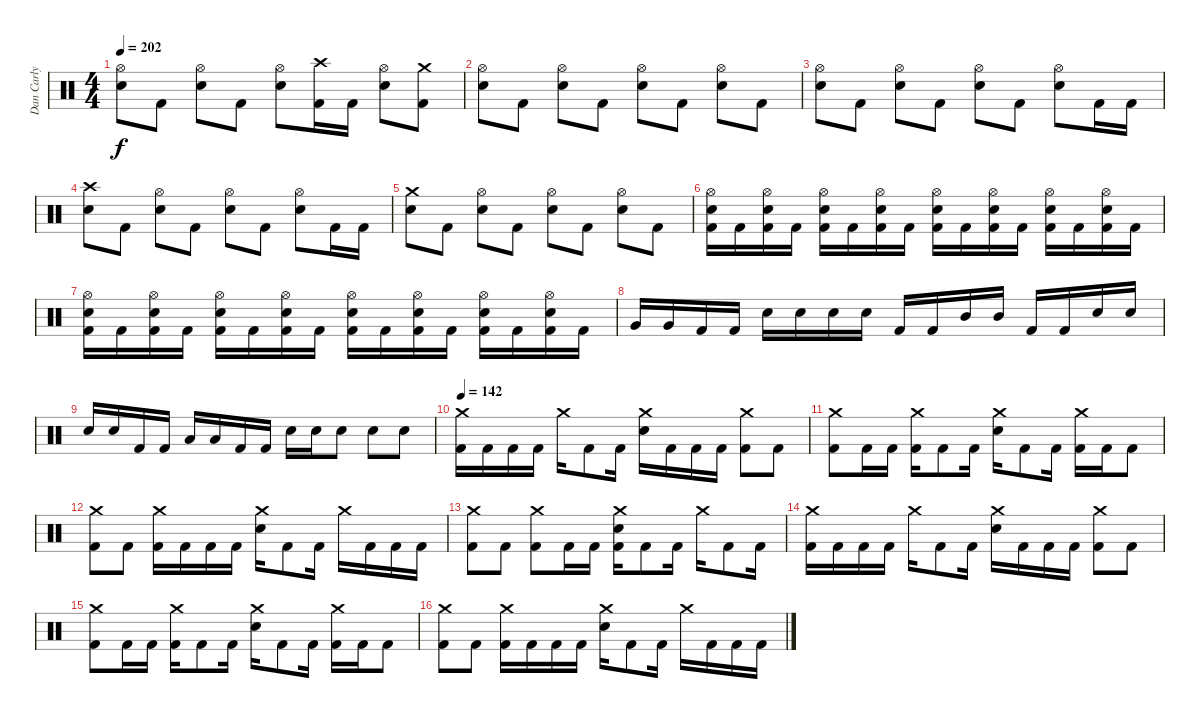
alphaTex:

\track ("Dan Carly" "Dan Carly") {instrument percussion}
\staff {score}
\articulation defaults
\ts (4 4)
\tempo 202
\clef neutral
\ks c
("Hi-Hat (open)" "Electric Snare (hit)").8{dy f} "Kick (hit) 2".8 ("Hi-Hat (open)" "Electric Snare (hit)").8 "Kick (hit) 2".8 ("Hi-Hat (open)" "Electric Snare (hit)").8 ("Crash high (hit)" "Kick (hit) 2").16 "Kick (hit) 2".16 ("Hi-Hat (open)" "Electric Snare (hit)").8 ("Crash medium (hit)" "Kick (hit) 2").8 |
("Hi-Hat (open)" "Electric Snare (hit)").8 "Kick (hit) 2".8 ("Hi-Hat (open)" "Electric Snare (hit)").8 "Kick (hit) 2".8 ("Hi-Hat (open)" "Electric Snare (hit)").8 "Kick (hit) 2".8 ("Hi-Hat (open)" "Electric Snare (hit)").8 "Kick (hit) 2".8 |
("Hi-Hat (open)" "Electric Snare (hit)").8 "Kick (hit) 2".8 ("Hi-Hat (open)" "Electric Snare (hit)").8 "Kick (hit) 2".8 ("Hi-Hat (open)" "Electric Snare (hit)").8 "Kick (hit) 2".8 ("Hi-Hat (open)" "Electric Snare (hit)").8 "Kick (hit) 2".16 "Kick (hit) 2".16 |
("Crash high (hit)" "Electric Snare (hit)").8 "Kick (hit) 2".8 ("Hi-Hat (open)" "Electric Snare (hit)").8 "Kick (hit) 2".8 ("Hi-Hat (open)" "Electric Snare (hit)").8 "Kick (hit) 2".8 ("Hi-Hat (open)" "Electric Snare (hit)").8 "Kick (hit) 2".16 "Kick (hit) 2".16 |
("Crash medium (hit)" "Electric Snare (hit)").8 "Kick (hit) 2".8 ("Hi-Hat (open)" "Electric Snare (hit)").8 "Kick (hit) 2".8 ("Hi-Hat (open)" "Electric Snare (hit)").8 "Kick (hit) 2".8 ("Hi-Hat (open)" "Electric Snare (hit)").8 "Kick (hit) 2".8 |
("Hi-Hat (open)" "Electric Snare (hit)" "Kick (hit) 2").16 "Kick (hit) 2".16 ("Hi-Hat (open)" "Electric Snare (hit)" "Kick (hit) 2").16 "Kick (hit) 2".16 ("Hi-Hat (open)" "Electric Snare (hit)" "Kick (hit) 2").16 "Kick (hit) 2".16 ("Hi-Hat (open)" "Electric Snare (hit)" "Kick (hit) 2").16 "Kick (hit) 2".16 ("Hi-Hat (open)" "Electric Snare (hit)" "Kick (hit) 2").16 "Kick (hit) 2".16 ("Hi-Hat (open)" "Electric Snare (hit)" "Kick (hit) 2").16 "Kick (hit) 2".16 ("Hi-Hat (open)" "Electric Snare (hit)" "Kick (hit) 2").16 "Kick (hit) 2".16 ("Hi-Hat (open)" "Electric Snare (hit)" "Kick (hit) 2").16 "Kick (hit) 2".16 |
("Hi-Hat (open)" "Electric Snare (hit)" "Kick (hit) 2").16 "Kick (hit) 2".16 ("Hi-Hat (open)" "Electric Snare (hit)" "Kick (hit) 2").16 "Kick (hit) 2".16 ("Hi-Hat (open)" "Electric Snare (hit)" "Kick (hit) 2").16 "Kick (hit) 2".16 ("Hi-Hat (open)" "Electric Snare (hit)" "Kick (hit) 2").16 "Kick (hit) 2".16 ("Hi-Hat (open)" "Electric Snare (hit)" "Kick (hit) 2").16 "Kick (hit) 2".16 ("Hi-Hat (open)" "Electric Snare (hit)" "Kick (hit) 2").16 "Kick (hit) 2".16 ("Hi-Hat (open)" "Electric Snare (hit)" "Kick (hit) 2").16 "Kick (hit) 2".16 ("Hi-Hat (open)" "Electric Snare (hit)" "Kick (hit) 2").16 "Kick (hit) 2".16 |
"Very Low Tom (hit)".16 "Very Low Tom (hit)".16 "Kick (hit) 2".16 "Kick (hit) 2".16 "Electric Snare (hit)".16 "Electric Snare (hit)".16 "Electric Snare (hit)".16 "Electric Snare (hit)".16 "Kick (hit) 2".16 "Kick (hit) 2".16 "Mid Tom (hit)".16 "Mid Tom (hit)".16 "Kick (hit) 2".16 "Kick (hit) 2".16 "Electric Snare (hit)".16 "Electric Snare (hit)".16 |
"Electric Snare (hit)".16 "Electric Snare (hit)".16 "Kick (hit) 2".16 "Kick (hit) 2".16 "Low Tom (hit)".16 "Low Tom (hit)".16 "Kick (hit) 2".16 "Kick (hit) 2".16 "Electric Snare (hit)".16 "Electric Snare (hit)".16 "Electric Snare (hit)".8 "Electric Snare (hit)".8 "Electric Snare (hit)".8 |
\tempo 142
("Crash medium (hit)" "Kick (hit) 2").16 "Kick (hit) 2".16 "Kick (hit) 2".16 "Kick (hit) 2".16 "Crash medium (hit)".16 "Kick (hit) 2".8 "Kick (hit) 2".16 ("Crash medium (hit)" "Electric Snare (hit)").16 "Kick (hit) 2".16 "Kick (hit) 2".16 "Kick (hit) 2".16 ("Crash medium (hit)" "Kick (hit) 2").8 "Kick (hit) 2".8 |
("Crash medium (hit)" "Kick (hit) 2").8 "Kick (hit) 2".16 "Kick (hit) 2".16 ("Crash medium (hit)" "Kick (hit) 2").16 "Kick (hit) 2".8 "Kick (hit) 2".16 ("Crash medium (hit)" "Electric Snare (hit)").16 "Kick (hit) 2".8 "Kick (hit) 2".16 ("Crash medium (hit)" "Kick (hit) 2").16 "Kick (hit) 2".16 "Kick (hit) 2".8 |
("Crash medium (hit)" "Kick (hit) 2").8 "Kick (hit) 2".8 ("Crash medium (hit)" "Kick (hit) 2").16 "Kick (hit) 2".16 "Kick (hit) 2".16 "Kick (hit) 2".16 ("Crash medium (hit)" "Electric Snare (hit)").16 "Kick (hit) 2".8 "Kick (hit) 2".16 "Crash medium (hit)".16 "Kick (hit) 2".16 "Kick (hit) 2".16 "Kick (hit) 2".16 |
("Crash medium (hit)" "Kick (hit) 2").8 "Kick (hit) 2".8 ("Crash medium (hit)" "Kick (hit) 2").8 "Kick (hit) 2".16 "Kick (hit) 2".16 ("Crash medium (hit)" "Electric Snare (hit)" "Kick (hit) 2").16 "Kick (hit) 2".8 "Kick (hit) 2".16 "Crash medium (hit)".16 "Kick (hit) 2".8 "Kick (hit) 2".16 |
("Crash medium (hit)" "Kick (hit) 2").16 "Kick (hit) 2".16 "Kick (hit) 2".16 "Kick (hit) 2".16 "Crash medium (hit)".16 "Kick (hit) 2".8 "Kick (hit) 2".16 ("Crash medium (hit)" "Electric Snare (hit)").16 "Kick (hit) 2".16 "Kick (hit) 2".16 "Kick (hit) 2".16 ("Crash medium (hit)" "Kick (hit) 2").8 "Kick (hit) 2".8 |
("Crash medium (hit)" "Kick (hit) 2").8 "Kick (hit) 2".16 "Kick (hit) 2".16 ("Crash medium (hit)" "Kick (hit) 2").16 "Kick (hit) 2".8 "Kick (hit) 2".16 ("Crash medium (hit)" "Electric Snare (hit)").16 "Kick (hit) 2".8 "Kick (hit) 2".16 ("Crash medium (hit)" "Kick (hit) 2").16 "Kick (hit) 2".16 "Kick (hit) 2".8 |
("Crash medium (hit)" "Kick (hit) 2").8 "Kick (hit) 2".8 ("Crash medium (hit)" "Kick (hit) 2").16 "Kick (hit) 2".16 "Kick (hit) 2".16 "Kick (hit) 2".16 ("Crash medium (hit)" "Electric Snare (hit)").16 "Kick (hit) 2".8 "Kick (hit) 2".16 "Crash medium (hit)".16 "Kick (hit) 2".16 "Kick (hit) 2".16 "Kick (hit) 2".16
